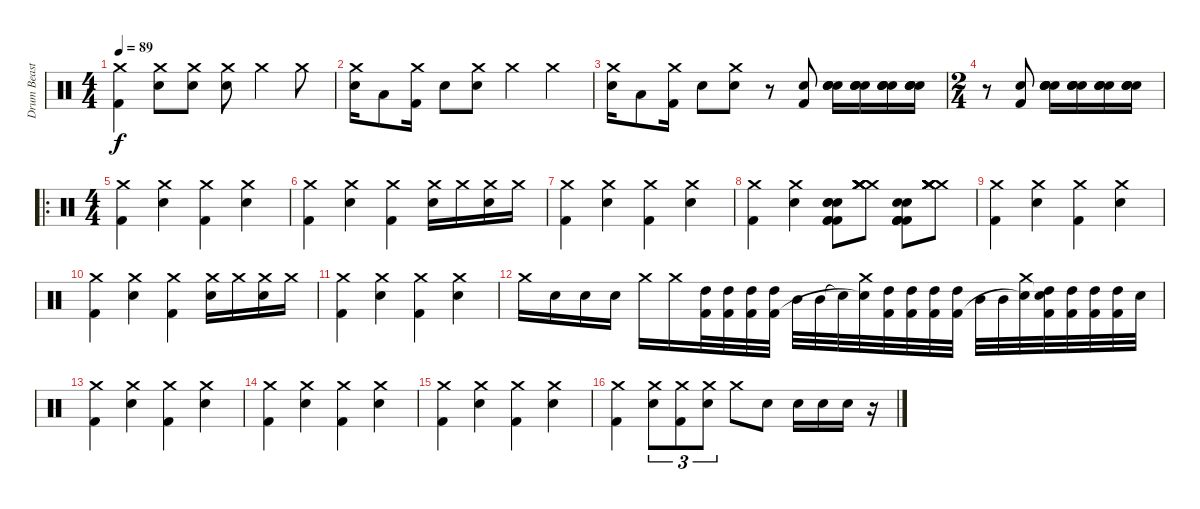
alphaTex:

\track ("Drum Beast Lars" "Drum Beast") {instrument percussion}
\staff {score}
\articulation defaults
\ts (4 4)
\tempo 89
\clef neutral
\ks c
("Crash medium (hit)" "Kick (hit) 2").4{dy f} ("Crash medium (hit)" "Electric Snare (hit)").8 ("Crash medium (hit)" "Electric Snare (hit)").8 ("Crash medium (hit)" "Electric Snare (hit)").8 "Crash medium (hit)".4 "Crash medium (hit)".8 |
("Crash medium (hit)" "Electric Snare (hit)").16 "Low Tom (hit)".8 ("Crash medium (hit)" "Kick (hit) 2").16 "Electric Snare (hit)".8 ("Crash medium (hit)" "Electric Snare (hit)").8 "Crash medium (hit)".4 "Crash medium (hit)".4 |
("Crash medium (hit)" "Electric Snare (hit)").16 "Low Tom (hit)".8 ("Crash medium (hit)" "Kick (hit) 2").16 "Electric Snare (hit)".8 ("Crash medium (hit)" "Electric Snare (hit)").8 r.8 ("Electric Snare (hit)" "Kick (hit) 2").8 ("Electric Snare (hit)" "Electric Snare (hit)" "Electric Snare (hit)" "Electric Snare (hit)").16 ("Electric Snare (hit)" "Electric Snare (hit)" "Electric Snare (hit)" "Electric Snare (hit)").16 ("Electric Snare (hit)" "Electric Snare (hit)" "Electric Snare (hit)" "Electric Snare (hit)").16 ("Electric Snare (hit)" "Electric Snare (hit)" "Electric Snare (hit)" "Electric Snare (hit)").16 |
\ts (2 4)
r.8 ("Electric Snare (hit)" "Kick (hit) 2").8 ("Electric Snare (hit)" "Electric Snare (hit)" "Electric Snare (hit)" "Electric Snare (hit)").16 ("Electric Snare (hit)" "Electric Snare (hit)" "Electric Snare (hit)" "Electric Snare (hit)").16 ("Electric Snare (hit)" "Electric Snare (hit)" "Electric Snare (hit)" "Electric Snare (hit)").16 ("Electric Snare (hit)" "Electric Snare (hit)" "Electric Snare (hit)" "Electric Snare (hit)").16 |
\ro
\ts (4 4)
("Crash medium (hit)" "Kick (hit) 2").4 ("Crash medium (hit)" "Electric Snare (hit)").4 ("Crash medium (hit)" "Kick (hit) 2").4 ("Crash medium (hit)" "Electric Snare (hit)").4 |
("Crash medium (hit)" "Kick (hit) 2").4 ("Crash medium (hit)" "Electric Snare (hit)").4 ("Crash medium (hit)" "Kick (hit) 2").4 ("Crash medium (hit)" "Electric Snare (hit)").16 "Crash medium (hit)".16 ("Crash medium (hit)" "Electric Snare (hit)").16 "Crash medium (hit)".16 |
("Crash medium (hit)" "Kick (hit) 2").4 ("Crash medium (hit)" "Electric Snare (hit)").4 ("Crash medium (hit)" "Kick (hit) 2").4 ("Crash medium (hit)" "Electric Snare (hit)").4 |
("Crash medium (hit)" "Kick (hit) 2").4 ("Crash medium (hit)" "Electric Snare (hit)").4 ("Electric Snare (hit)" "Electric Snare (hit)" "Electric Snare (hit)" "Kick (hit) 2" "Kick (hit) 2" "Kick (hit) 2").8 ("Crash medium (hit)" "Crash medium (hit)" "Crash medium (hit)" "Crash medium (hit)" "Crash medium (hit)" "Crash medium (hit)").8 ("Electric Snare (hit)" "Electric Snare (hit)" "Kick (hit) 2" "Kick (hit) 2" "Kick (hit) 2" "Kick (hit) 2").8 ("Crash medium (hit)" "Crash medium (hit)" "Crash medium (hit)" "Crash medium (hit)" "Crash medium (hit)" "Crash medium (hit)").8 |
("Crash medium (hit)" "Kick (hit) 2").4 ("Crash medium (hit)" "Electric Snare (hit)").4 ("Crash medium (hit)" "Kick (hit) 2").4 ("Crash medium (hit)" "Electric Snare (hit)").4 |
("Crash medium (hit)" "Kick (hit) 2").4 ("Crash medium (hit)" "Electric Snare (hit)").4 ("Crash medium (hit)" "Kick (hit) 2").4 ("Crash medium (hit)" "Electric Snare (hit)").16 "Crash medium (hit)".16 ("Crash medium (hit)" "Electric Snare (hit)").16 "Crash medium (hit)".16 |
("Crash medium (hit)" "Kick (hit) 2").4 ("Crash medium (hit)" "Electric Snare (hit)").4 ("Crash medium (hit)" "Kick (hit) 2").4 ("Crash medium (hit)" "Electric Snare (hit)").4 |
"Crash medium (hit)".16 "Electric Snare (hit)".16 "Electric Snare (hit)".16 "Electric Snare (hit)".16 "Crash medium (hit)".16 "Crash medium (hit)".16 ("High Tom (hit)" "Kick (hit) 2").32 ("High Tom (hit)" "Kick (hit) 2").32 ("High Tom (hit)" "Kick (hit) 2").32 ("High Tom (hit)" "Kick (hit) 2").32 "Mid Tom (hit)".32 "Mid Tom (hit)".32 "Snare (hit)"{t}.32 ("Crash medium (hit)" "Snare (hit)"{t}).32 ("High Tom (hit)" "Kick (hit) 2").32 ("High Tom (hit)" "Kick (hit) 2").32 ("High Tom (hit)" "Kick (hit) 2").32 ("High Tom (hit)" "Kick (hit) 2").32 "Mid Tom (hit)".32 "Mid Tom (hit)".32 ("Crash medium (hit)" "Snare (hit)"{t}).32 ("High Tom (hit)" "Snare (hit)"{t} "Kick (hit) 2").32 ("High Tom (hit)" "Kick (hit) 2").32 ("High Tom (hit)" "Kick (hit) 2").32 ("High Tom (hit)" "Kick (hit) 2").32 "Electric Snare (hit)".32 |
("Crash medium (hit)" "Kick (hit) 2").4 ("Crash medium (hit)" "Electric Snare (hit)").4 ("Crash medium (hit)" "Kick (hit) 2").4 ("Crash medium (hit)" "Electric Snare (hit)").4 |
("Crash medium (hit)" "Kick (hit) 2").4 ("Crash medium (hit)" "Electric Snare (hit)").4 ("Crash medium (hit)" "Kick (hit) 2").4 ("Crash medium (hit)" "Electric Snare (hit)").4 |
("Crash medium (hit)" "Kick (hit) 2").4 ("Crash medium (hit)" "Electric Snare (hit)").4 ("Crash medium (hit)" "Kick (hit) 2").4 ("Crash medium (hit)" "Electric Snare (hit)").4 |
("Crash medium (hit)" "Kick (hit) 2").4 ("Crash medium (hit)" "Electric Snare (hit)").8{tu (3 2)} ("Crash medium (hit)" "Kick (hit) 2").8{tu (3 2)} ("Crash medium (hit)" "Electric Snare (hit)").8{tu (3 2)} "Crash medium (hit)".8 "Electric Snare (hit)".8 "Electric Snare (hit)".16 "Electric Snare (hit)".16 "Electric Snare (hit)".16 r.16
